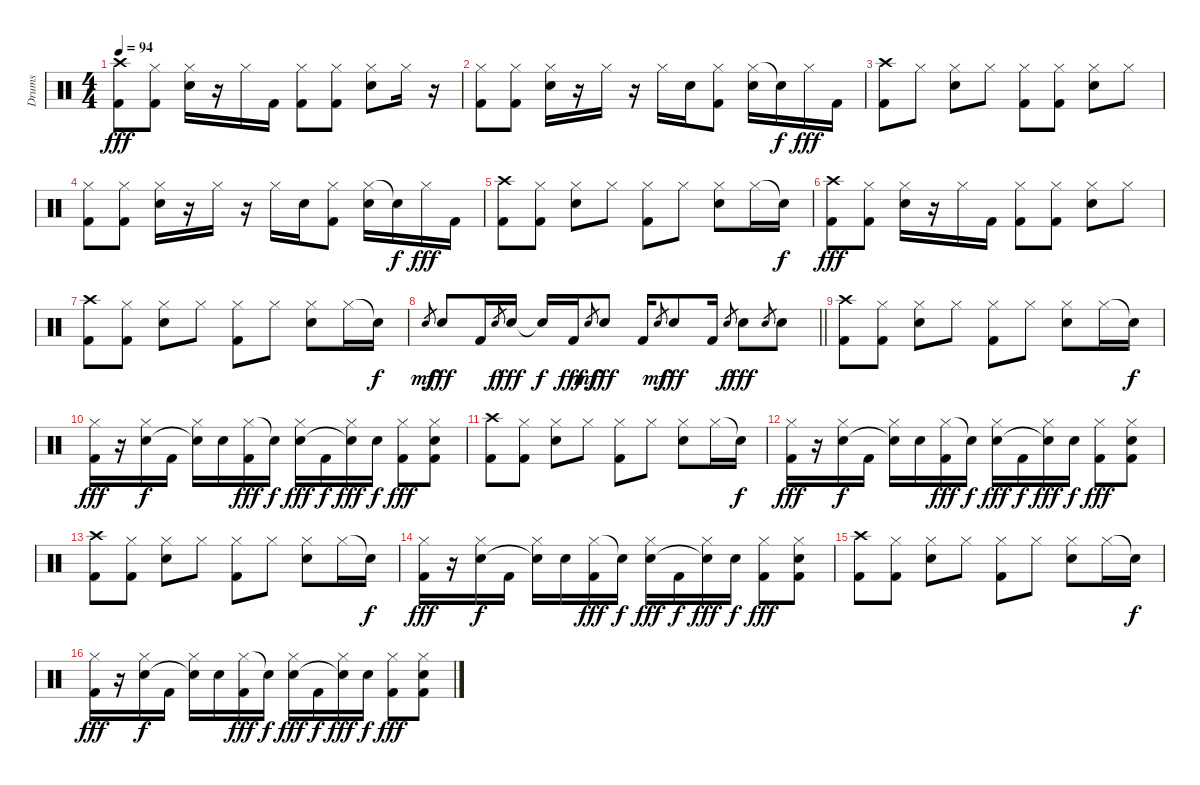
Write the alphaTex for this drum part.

\track ("Drums" "Drums") {instrument percussion}
\staff {score}
\articulation defaults
\ts (4 4)
\tempo 94
\clef neutral
\ks c
("Crash high (hit)" "Kick (hit) 2").8{dy fff} ("Hi-Hat (closed)" "Kick (hit) 2").8 ("Hi-Hat (closed)" "Snare (hit) 2").16 r.16 "Hi-Hat (closed)".16 "Kick (hit) 2".16 ("Hi-Hat (closed)" "Kick (hit) 2").8 ("Hi-Hat (closed)" "Kick (hit) 2").8 ("Hi-Hat (closed)" "Snare (hit) 2").8 "Hi-Hat (closed)".16 r.16 |
("Hi-Hat (closed)" "Kick (hit) 2").8 ("Hi-Hat (closed)" "Kick (hit) 2").8 ("Hi-Hat (closed)" "Snare (hit) 2").16 r.16 "Hi-Hat (closed)".16 r.16 "Hi-Hat (closed)".16 "Snare (hit) 2".16 ("Hi-Hat (closed)" "Kick (hit) 2").8 ("Hi-Hat (closed)" "Snare (hit) 2").16 "Snare (hit)"{t}.16{dy f} "Hi-Hat (closed)".16{dy fff} "Kick (hit) 2".16 |
("Crash high (hit)" "Kick (hit) 2").8 "Hi-Hat (closed)".8 ("Hi-Hat (closed)" "Snare (hit) 2").8 "Hi-Hat (closed)".8 ("Hi-Hat (closed)" "Kick (hit) 2").8 ("Hi-Hat (closed)" "Kick (hit) 2").8 ("Hi-Hat (closed)" "Snare (hit) 2").8 "Hi-Hat (closed)".8 |
("Hi-Hat (closed)" "Kick (hit) 2").8 ("Hi-Hat (closed)" "Kick (hit) 2").8 ("Hi-Hat (closed)" "Snare (hit) 2").16 r.16 "Hi-Hat (closed)".16 r.16 "Hi-Hat (closed)".16 "Snare (hit) 2".16 ("Hi-Hat (closed)" "Kick (hit) 2").8 ("Hi-Hat (closed)" "Snare (hit) 2").16 "Snare (hit)"{t}.16{dy f} "Hi-Hat (closed)".16{dy fff} "Kick (hit) 2".16 |
("Crash high (hit)" "Kick (hit) 2").8 ("Hi-Hat (closed)" "Kick (hit) 2").8 ("Hi-Hat (closed)" "Snare (hit) 2").8 "Hi-Hat (closed)".8 ("Hi-Hat (closed)" "Kick (hit) 2").8 "Hi-Hat (closed)".8 ("Hi-Hat (closed)" "Snare (hit) 2").8 "Hi-Hat (closed)".16 "Snare (hit)"{t}.16{dy f} |
("Crash high (hit)" "Kick (hit) 2").8{dy fff} ("Hi-Hat (closed)" "Kick (hit) 2").8 ("Hi-Hat (closed)" "Snare (hit) 2").16 r.16 "Hi-Hat (closed)".16 "Kick (hit) 2".16 ("Hi-Hat (closed)" "Kick (hit) 2").8 ("Hi-Hat (closed)" "Kick (hit) 2").8 ("Hi-Hat (closed)" "Snare (hit) 2").8 "Hi-Hat (closed)".8 |
("Crash high (hit)" "Kick (hit) 2").8 ("Hi-Hat (closed)" "Kick (hit) 2").8 ("Hi-Hat (closed)" "Snare (hit) 2").8 "Hi-Hat (closed)".8 ("Hi-Hat (closed)" "Kick (hit) 2").8 "Hi-Hat (closed)".8 ("Hi-Hat (closed)" "Snare (hit) 2").8 "Hi-Hat (closed)".16 "Snare (hit)"{t}.16{dy f} |
\barLineRight lightlight "Snare (hit) 2".8{gr dy mf} "Snare (hit) 2".8{dy fff} "Kick (hit) 2".16 "Snare (hit) 2".8{gr dy f} "Snare (hit) 2".16{dy fff} "Snare (hit)"{t}.16{dy f} "Kick (hit) 2".16{dy fff} "Snare (hit) 2".8{gr dy mf} "Snare (hit) 2".8{dy fff} "Kick (hit) 2".16 "Snare (hit) 2".8{gr dy mf} "Snare (hit) 2".8{dy fff} "Kick (hit) 2".16 "Snare (hit) 2".8{gr dy f} "Snare (hit) 2".8{dy fff} "Snare (hit) 2".8{gr} "Snare (hit) 2".8
|
("Crash high (hit)" "Kick (hit) 2").8 ("Hi-Hat (closed)" "Kick (hit) 2").8 ("Hi-Hat (closed)" "Snare (hit) 2").8 "Hi-Hat (closed)".8 ("Hi-Hat (closed)" "Kick (hit) 2").8 "Hi-Hat (closed)".8 ("Hi-Hat (closed)" "Snare (hit) 2").8 "Hi-Hat (closed)".16 "Snare (hit)"{t}.16{dy f} |
("Hi-Hat (closed)" "Kick (hit) 2").16{dy fff} r.16 ("Hi-Hat (closed)" "Snare (hit) 2").16{dy f} "Kick (hit) 2".16 ("Hi-Hat (closed)" "Snare (hit)"{t}).16 "Snare (hit) 2".16 ("Hi-Hat (closed)" "Kick (hit) 2").16{dy fff} "Snare (hit)"{t}.16{dy f} ("Hi-Hat (closed)" "Snare (hit) 2").16{dy fff} "Kick (hit) 2".16{dy f} ("Hi-Hat (closed)" "Snare (hit)"{t}).16{dy fff} "Snare (hit) 2".16{dy f} ("Hi-Hat (closed)" "Kick (hit) 2").8{dy fff} ("Hi-Hat (closed)" "Snare (hit) 2" "Kick (hit) 2").8 |
("Crash high (hit)" "Kick (hit) 2").8 ("Hi-Hat (closed)" "Kick (hit) 2").8 ("Hi-Hat (closed)" "Snare (hit) 2").8 "Hi-Hat (closed)".8 ("Hi-Hat (closed)" "Kick (hit) 2").8 "Hi-Hat (closed)".8 ("Hi-Hat (closed)" "Snare (hit) 2").8 "Hi-Hat (closed)".16 "Snare (hit)"{t}.16{dy f} |
("Hi-Hat (closed)" "Kick (hit) 2").16{dy fff} r.16 ("Hi-Hat (closed)" "Snare (hit) 2").16{dy f} "Kick (hit) 2".16 ("Hi-Hat (closed)" "Snare (hit)"{t}).16 "Snare (hit) 2".16 ("Hi-Hat (closed)" "Kick (hit) 2").16{dy fff} "Snare (hit)"{t}.16{dy f} ("Hi-Hat (closed)" "Snare (hit) 2").16{dy fff} "Kick (hit) 2".16{dy f} ("Hi-Hat (closed)" "Snare (hit)"{t}).16{dy fff} "Snare (hit) 2".16{dy f} ("Hi-Hat (closed)" "Kick (hit) 2").8{dy fff} ("Hi-Hat (closed)" "Snare (hit) 2" "Kick (hit) 2").8 |
("Crash high (hit)" "Kick (hit) 2").8 ("Hi-Hat (closed)" "Kick (hit) 2").8 ("Hi-Hat (closed)" "Snare (hit) 2").8 "Hi-Hat (closed)".8 ("Hi-Hat (closed)" "Kick (hit) 2").8 "Hi-Hat (closed)".8 ("Hi-Hat (closed)" "Snare (hit) 2").8 "Hi-Hat (closed)".16 "Snare (hit)"{t}.16{dy f} |
("Hi-Hat (closed)" "Kick (hit) 2").16{dy fff} r.16 ("Hi-Hat (closed)" "Snare (hit) 2").16{dy f} "Kick (hit) 2".16 ("Hi-Hat (closed)" "Snare (hit)"{t}).16 "Snare (hit) 2".16 ("Hi-Hat (closed)" "Kick (hit) 2").16{dy fff} "Snare (hit)"{t}.16{dy f} ("Hi-Hat (closed)" "Snare (hit) 2").16{dy fff} "Kick (hit) 2".16{dy f} ("Hi-Hat (closed)" "Snare (hit)"{t}).16{dy fff} "Snare (hit) 2".16{dy f} ("Hi-Hat (closed)" "Kick (hit) 2").8{dy fff} ("Hi-Hat (closed)" "Snare (hit) 2" "Kick (hit) 2").8 |
("Crash high (hit)" "Kick (hit) 2").8 ("Hi-Hat (closed)" "Kick (hit) 2").8 ("Hi-Hat (closed)" "Snare (hit) 2").8 "Hi-Hat (closed)".8 ("Hi-Hat (closed)" "Kick (hit) 2").8 "Hi-Hat (closed)".8 ("Hi-Hat (closed)" "Snare (hit) 2").8 "Hi-Hat (closed)".16 "Snare (hit)"{t}.16{dy f} |
("Hi-Hat (closed)" "Kick (hit) 2").16{dy fff} r.16 ("Hi-Hat (closed)" "Snare (hit) 2").16{dy f} "Kick (hit) 2".16 ("Hi-Hat (closed)" "Snare (hit)"{t}).16 "Snare (hit) 2".16 ("Hi-Hat (closed)" "Kick (hit) 2").16{dy fff} "Snare (hit)"{t}.16{dy f} ("Hi-Hat (closed)" "Snare (hit) 2").16{dy fff} "Kick (hit) 2".16{dy f} ("Hi-Hat (closed)" "Snare (hit)"{t}).16{dy fff} "Snare (hit) 2".16{dy f} ("Hi-Hat (closed)" "Kick (hit) 2").8{dy fff} ("Hi-Hat (closed)" "Snare (hit) 2" "Kick (hit) 2").8
